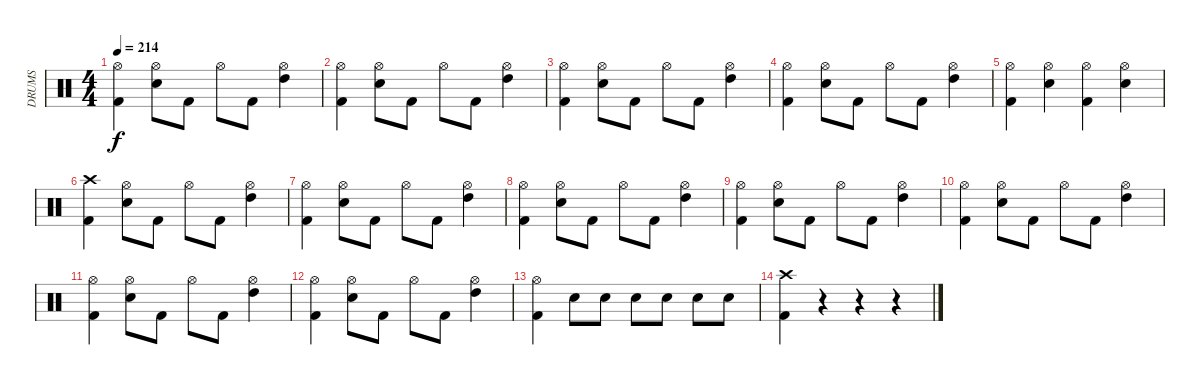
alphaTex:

\track ("DRUMS" "DRUMS") {instrument percussion}
\staff {score}
\articulation defaults
\ts (4 4)
\tempo 214
\clef neutral
\ks c
("Hi-Hat (open)" "Kick (hit) 2").4{dy f} ("Hi-Hat (open)" "Snare (hit) 2").8 "Kick (hit) 2".8 "Hi-Hat (open)".8 "Kick (hit) 2".8 ("Hi-Hat (open)" "High Tom (hit)").4 |
("Hi-Hat (open)" "Kick (hit) 2").4 ("Hi-Hat (open)" "Snare (hit) 2").8 "Kick (hit) 2".8 "Hi-Hat (open)".8 "Kick (hit) 2".8 ("Hi-Hat (open)" "High Tom (hit)").4 |
("Hi-Hat (open)" "Kick (hit) 2").4 ("Hi-Hat (open)" "Snare (hit) 2").8 "Kick (hit) 2".8 "Hi-Hat (open)".8 "Kick (hit) 2".8 ("Hi-Hat (open)" "High Tom (hit)").4 |
("Hi-Hat (open)" "Kick (hit) 2").4 ("Hi-Hat (open)" "Snare (hit) 2").8 "Kick (hit) 2".8 "Hi-Hat (open)".8 "Kick (hit) 2".8 ("Hi-Hat (open)" "High Tom (hit)").4 |
("Hi-Hat (open)" "Kick (hit) 2").4 ("Hi-Hat (open)" "Snare (hit) 2").4 ("Hi-Hat (open)" "Kick (hit) 2").4 ("Hi-Hat (open)" "Snare (hit) 2").4 |
("Crash high (hit)" "Kick (hit) 2").4 ("Hi-Hat (open)" "Snare (hit) 2").8 "Kick (hit) 2".8 "Hi-Hat (open)".8 "Kick (hit) 2".8 ("Hi-Hat (open)" "High Tom (hit)").4 |
("Hi-Hat (open)" "Kick (hit) 2").4 ("Hi-Hat (open)" "Snare (hit) 2").8 "Kick (hit) 2".8 "Hi-Hat (open)".8 "Kick (hit) 2".8 ("Hi-Hat (open)" "High Tom (hit)").4 |
("Hi-Hat (open)" "Kick (hit) 2").4 ("Hi-Hat (open)" "Snare (hit) 2").8 "Kick (hit) 2".8 "Hi-Hat (open)".8 "Kick (hit) 2".8 ("Hi-Hat (open)" "High Tom (hit)").4 |
("Hi-Hat (open)" "Kick (hit) 2").4 ("Hi-Hat (open)" "Snare (hit) 2").8 "Kick (hit) 2".8 "Hi-Hat (open)".8 "Kick (hit) 2".8 ("Hi-Hat (open)" "High Tom (hit)").4 |
("Hi-Hat (open)" "Kick (hit) 2").4 ("Hi-Hat (open)" "Snare (hit) 2").8 "Kick (hit) 2".8 "Hi-Hat (open)".8 "Kick (hit) 2".8 ("Hi-Hat (open)" "High Tom (hit)").4 |
("Hi-Hat (open)" "Kick (hit) 2").4 ("Hi-Hat (open)" "Snare (hit) 2").8 "Kick (hit) 2".8 "Hi-Hat (open)".8 "Kick (hit) 2".8 ("Hi-Hat (open)" "High Tom (hit)").4 |
("Hi-Hat (open)" "Kick (hit) 2").4 ("Hi-Hat (open)" "Snare (hit) 2").8 "Kick (hit) 2".8 "Hi-Hat (open)".8 "Kick (hit) 2".8 ("Hi-Hat (open)" "High Tom (hit)").4 |
("Hi-Hat (open)" "Kick (hit) 2").4 "Snare (hit) 2".8 "Snare (hit) 2".8 "Snare (hit) 2".8 "Snare (hit) 2".8 "Snare (hit) 2".8 "Snare (hit) 2".8 |
("Crash high (hit)" "Kick (hit) 2").4 r.4 r.4 r.4
